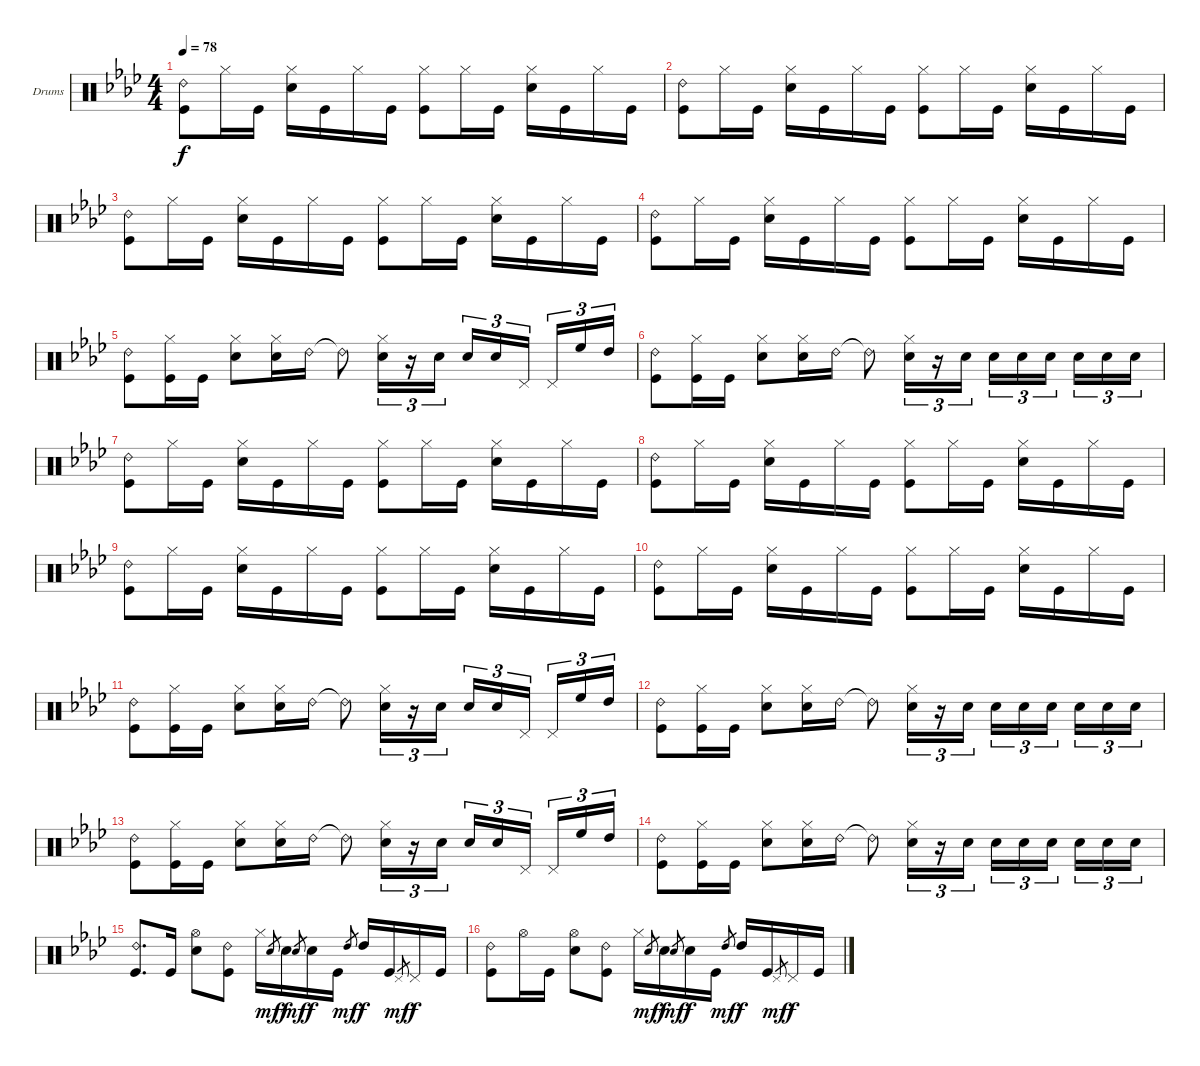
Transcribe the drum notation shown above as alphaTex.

\defaultSystemsLayout 4
\bracketExtendMode groupsimilarinstruments
\firstSystemTrackNameOrientation horizontal
\otherSystemsTrackNameOrientation horizontal
\track ("Drumkit" "Drums") {instrument percussion}
\staff {score}
\articulation defaults
\ts (4 4)
\tempo 78
\clef neutral
\ks ab
("Ride (bell) 2" "Kick (hit)").8{dy f} "Hi-Hat (closed)".16 "Kick (hit)".16 ("Hi-Hat (closed)" "Snare (hit) 2").16 "Kick (hit)".16 "Hi-Hat (closed)".16 "Kick (hit)".16 ("Hi-Hat (closed)" "Kick (hit)").8 "Hi-Hat (closed)".16 "Kick (hit)".16 ("Hi-Hat (closed)" "Snare (hit) 2").16 "Kick (hit)".16 "Hi-Hat (closed)".16 "Kick (hit)".16 |
("Ride (bell) 2" "Kick (hit)").8 "Hi-Hat (closed)".16 "Kick (hit)".16 ("Hi-Hat (closed)" "Snare (hit) 2").16 "Kick (hit)".16 "Hi-Hat (closed)".16 "Kick (hit)".16 ("Hi-Hat (closed)" "Kick (hit)").8 "Hi-Hat (closed)".16 "Kick (hit)".16 ("Hi-Hat (closed)" "Snare (hit) 2").16 "Kick (hit)".16 "Hi-Hat (closed)".16 "Kick (hit)".16 |
("Ride (bell) 2" "Kick (hit)").8 "Hi-Hat (closed)".16 "Kick (hit)".16 ("Hi-Hat (closed)" "Snare (hit) 2").16 "Kick (hit)".16 "Hi-Hat (closed)".16 "Kick (hit)".16 ("Hi-Hat (closed)" "Kick (hit)").8 "Hi-Hat (closed)".16 "Kick (hit)".16 ("Hi-Hat (closed)" "Snare (hit) 2").16 "Kick (hit)".16 "Hi-Hat (closed)".16 "Kick (hit)".16 |
("Ride (bell) 2" "Kick (hit)").8 "Hi-Hat (closed)".16 "Kick (hit)".16 ("Hi-Hat (closed)" "Snare (hit) 2").16 "Kick (hit)".16 "Hi-Hat (closed)".16 "Kick (hit)".16 ("Hi-Hat (closed)" "Kick (hit)").8 "Hi-Hat (closed)".16 "Kick (hit)".16 ("Hi-Hat (closed)" "Snare (hit) 2").16 "Kick (hit)".16 "Hi-Hat (closed)".16 "Kick (hit)".16 |
("Ride (bell) 2" "Kick (hit)").8 ("Hi-Hat (closed)" "Kick (hit)").16 "Kick (hit)".16 ("Hi-Hat (closed)" "Snare (hit) 2").8 ("Hi-Hat (closed)" "Snare (hit) 2").16 "Ride (bell) 2".16 "Ride (bell) 2"{t}.8 ("Hi-Hat (closed)" "Snare (hit) 2").16{tu (3 2)} r.16{tu (3 2)} "Snare (hit) 2".16{tu (3 2)} "Snare (hit) 2".16{tu (3 2)} "Snare (hit) 2".16{tu (3 2)} "Pedal Hi-Hat (hit)".16{tu (3 2)} "Pedal Hi-Hat (hit)".16{tu (3 2)} "High Floor Tom (hit)".16{tu (3 2)} "High Tom (hit)".16{tu (3 2)} |
("Ride (bell) 2" "Kick (hit)").8 ("Hi-Hat (closed)" "Kick (hit)").16 "Kick (hit)".16 ("Hi-Hat (closed)" "Snare (hit) 2").8 ("Hi-Hat (closed)" "Snare (hit) 2").16 "Ride (bell) 2".16 "Ride (bell) 2"{t}.8 ("Hi-Hat (closed)" "Snare (hit) 2").16{tu (3 2)} r.16{tu (3 2)} "Snare (hit) 2".16{tu (3 2)} "Snare (hit) 2".16{tu (3 2)} "Snare (hit) 2".16{tu (3 2)} "Snare (hit) 2".16{tu (3 2)} "Snare (hit) 2".16{tu (3 2)} "Snare (hit) 2".16{tu (3 2)} "Snare (hit) 2".16{tu (3 2)} |
("Ride (bell) 2" "Kick (hit)").8 "Hi-Hat (closed)".16 "Kick (hit)".16 ("Hi-Hat (closed)" "Snare (hit) 2").16 "Kick (hit)".16 "Hi-Hat (closed)".16 "Kick (hit)".16 ("Hi-Hat (closed)" "Kick (hit)").8 "Hi-Hat (closed)".16 "Kick (hit)".16 ("Hi-Hat (closed)" "Snare (hit) 2").16 "Kick (hit)".16 "Hi-Hat (closed)".16 "Kick (hit)".16 |
("Ride (bell) 2" "Kick (hit)").8 "Hi-Hat (closed)".16 "Kick (hit)".16 ("Hi-Hat (closed)" "Snare (hit) 2").16 "Kick (hit)".16 "Hi-Hat (closed)".16 "Kick (hit)".16 ("Hi-Hat (closed)" "Kick (hit)").8 "Hi-Hat (closed)".16 "Kick (hit)".16 ("Hi-Hat (closed)" "Snare (hit) 2").16 "Kick (hit)".16 "Hi-Hat (closed)".16 "Kick (hit)".16 |
("Ride (bell) 2" "Kick (hit)").8 "Hi-Hat (closed)".16 "Kick (hit)".16 ("Hi-Hat (closed)" "Snare (hit) 2").16 "Kick (hit)".16 "Hi-Hat (closed)".16 "Kick (hit)".16 ("Hi-Hat (closed)" "Kick (hit)").8 "Hi-Hat (closed)".16 "Kick (hit)".16 ("Hi-Hat (closed)" "Snare (hit) 2").16 "Kick (hit)".16 "Hi-Hat (closed)".16 "Kick (hit)".16 |
("Ride (bell) 2" "Kick (hit)").8 "Hi-Hat (closed)".16 "Kick (hit)".16 ("Hi-Hat (closed)" "Snare (hit) 2").16 "Kick (hit)".16 "Hi-Hat (closed)".16 "Kick (hit)".16 ("Hi-Hat (closed)" "Kick (hit)").8 "Hi-Hat (closed)".16 "Kick (hit)".16 ("Hi-Hat (closed)" "Snare (hit) 2").16 "Kick (hit)".16 "Hi-Hat (closed)".16 "Kick (hit)".16 |
("Ride (bell) 2" "Kick (hit)").8 ("Hi-Hat (closed)" "Kick (hit)").16 "Kick (hit)".16 ("Hi-Hat (closed)" "Snare (hit) 2").8 ("Hi-Hat (closed)" "Snare (hit) 2").16 "Ride (bell) 2".16 "Ride (bell) 2"{t}.8 ("Hi-Hat (closed)" "Snare (hit) 2").16{tu (3 2)} r.16{tu (3 2)} "Snare (hit) 2".16{tu (3 2)} "Snare (hit) 2".16{tu (3 2)} "Snare (hit) 2".16{tu (3 2)} "Pedal Hi-Hat (hit)".16{tu (3 2)} "Pedal Hi-Hat (hit)".16{tu (3 2)} "High Floor Tom (hit)".16{tu (3 2)} "High Tom (hit)".16{tu (3 2)} |
("Ride (bell) 2" "Kick (hit)").8 ("Hi-Hat (closed)" "Kick (hit)").16 "Kick (hit)".16 ("Hi-Hat (closed)" "Snare (hit) 2").8 ("Hi-Hat (closed)" "Snare (hit) 2").16 "Ride (bell) 2".16 "Ride (bell) 2"{t}.8 ("Hi-Hat (closed)" "Snare (hit) 2").16{tu (3 2)} r.16{tu (3 2)} "Snare (hit) 2".16{tu (3 2)} "Snare (hit) 2".16{tu (3 2)} "Snare (hit) 2".16{tu (3 2)} "Snare (hit) 2".16{tu (3 2)} "Snare (hit) 2".16{tu (3 2)} "Snare (hit) 2".16{tu (3 2)} "Snare (hit) 2".16{tu (3 2)} |
("Ride (bell) 2" "Kick (hit)").8 ("Hi-Hat (closed)" "Kick (hit)").16 "Kick (hit)".16 ("Hi-Hat (closed)" "Snare (hit) 2").8 ("Hi-Hat (closed)" "Snare (hit) 2").16 "Ride (bell) 2".16 "Ride (bell) 2"{t}.8 ("Hi-Hat (closed)" "Snare (hit) 2").16{tu (3 2)} r.16{tu (3 2)} "Snare (hit) 2".16{tu (3 2)} "Snare (hit) 2".16{tu (3 2)} "Snare (hit) 2".16{tu (3 2)} "Pedal Hi-Hat (hit)".16{tu (3 2)} "Pedal Hi-Hat (hit)".16{tu (3 2)} "High Floor Tom (hit)".16{tu (3 2)} "High Tom (hit)".16{tu (3 2)} |
("Ride (bell) 2" "Kick (hit)").8 ("Hi-Hat (closed)" "Kick (hit)").16 "Kick (hit)".16 ("Hi-Hat (closed)" "Snare (hit) 2").8 ("Hi-Hat (closed)" "Snare (hit) 2").16 "Ride (bell) 2".16 "Ride (bell) 2"{t}.8 ("Hi-Hat (closed)" "Snare (hit) 2").16{tu (3 2)} r.16{tu (3 2)} "Snare (hit) 2".16{tu (3 2)} "Snare (hit) 2".16{tu (3 2)} "Snare (hit) 2".16{tu (3 2)} "Snare (hit) 2".16{tu (3 2)} "Snare (hit) 2".16{tu (3 2)} "Snare (hit) 2".16{tu (3 2)} "Snare (hit) 2".16{tu (3 2)} |
("Ride (bell) 2" "Kick (hit)").8{d} "Kick (hit)".16 ("Hi-Hat (open)" "Snare (hit) 2").8 ("Ride (bell) 2" "Kick (hit)").8 "Hi-Hat (closed)".16 "Snare (hit) 2".8{gr dy mf} "Snare (hit) 2".16{dy f} "Snare (hit) 2".8{gr dy mf} "Snare (hit) 2".16{dy f} "Kick (hit)".16 "High Tom (hit)".8{gr dy mf} "High Tom (hit)".16{dy f} "Kick (hit)".16 "Pedal Hi-Hat (hit)".8{gr dy mf} "Pedal Hi-Hat (hit)".16{dy f} "Kick (hit)".16 |
("Ride (bell) 2" "Kick (hit)").8 "Hi-Hat (open)".16 "Kick (hit)".16 ("Hi-Hat (open)" "Snare (hit) 2").8 ("Ride (bell) 2" "Kick (hit)").8 "Hi-Hat (closed)".16 "Snare (hit) 2".8{gr dy mf} "Snare (hit) 2".16{dy f} "Snare (hit) 2".8{gr dy mf} "Snare (hit) 2".16{dy f} "Kick (hit)".16 "High Tom (hit)".8{gr dy mf} "High Tom (hit)".16{dy f} "Kick (hit)".16 "Pedal Hi-Hat (hit)".8{gr dy mf} "Pedal Hi-Hat (hit)".16{dy f} "Kick (hit)".16
